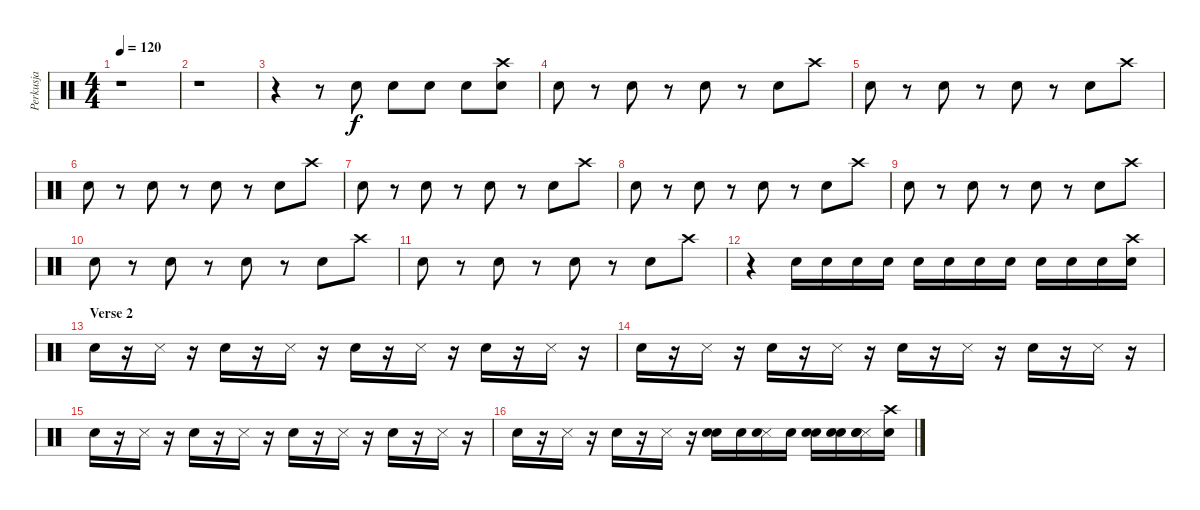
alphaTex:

\track ("Perkusja" "Perkusja") {instrument percussion}
\staff {score}
\articulation defaults
\ts (4 4)
\tempo 120
\clef neutral
\ks c
r.1{dy f} |
r.1 |
r.4 r.8 "Electric Snare (hit)".8 "Electric Snare (hit)".8 "Electric Snare (hit)".8 "Electric Snare (hit)".8 ("Electric Snare (hit)" "Crash high (hit)").8 |
"Electric Snare (hit)".8 r.8 "Electric Snare (hit)".8 r.8 "Electric Snare (hit)".8 r.8 "Electric Snare (hit)".8 "Crash high (hit)".8 |
"Electric Snare (hit)".8 r.8 "Electric Snare (hit)".8 r.8 "Electric Snare (hit)".8 r.8 "Electric Snare (hit)".8 "Crash high (hit)".8 |
"Electric Snare (hit)".8 r.8 "Electric Snare (hit)".8 r.8 "Electric Snare (hit)".8 r.8 "Electric Snare (hit)".8 "Crash high (hit)".8 |
"Electric Snare (hit)".8 r.8 "Electric Snare (hit)".8 r.8 "Electric Snare (hit)".8 r.8 "Electric Snare (hit)".8 "Crash high (hit)".8 |
"Electric Snare (hit)".8 r.8 "Electric Snare (hit)".8 r.8 "Electric Snare (hit)".8 r.8 "Electric Snare (hit)".8 "Crash high (hit)".8 |
"Electric Snare (hit)".8 r.8 "Electric Snare (hit)".8 r.8 "Electric Snare (hit)".8 r.8 "Electric Snare (hit)".8 "Crash high (hit)".8 |
"Electric Snare (hit)".8 r.8 "Electric Snare (hit)".8 r.8 "Electric Snare (hit)".8 r.8 "Electric Snare (hit)".8 "Crash high (hit)".8 |
"Electric Snare (hit)".8 r.8 "Electric Snare (hit)".8 r.8 "Electric Snare (hit)".8 r.8 "Electric Snare (hit)".8 "Crash high (hit)".8 |
r.4 "Electric Snare (hit)".16 "Electric Snare (hit)".16 "Electric Snare (hit)".16 "Electric Snare (hit)".16 "Electric Snare (hit)".16 "Electric Snare (hit)".16 "Electric Snare (hit)".16 "Electric Snare (hit)".16 "Electric Snare (hit)".16 "Electric Snare (hit)".16 "Electric Snare (hit)".16 ("Electric Snare (hit)" "Crash high (hit)").16 |
\section ("" "Verse 2")
"Snare (hit) 2".16 r.16 "Snare (side stick) 3".16 r.16 "Snare (hit) 2".16 r.16 "Snare (side stick) 3".16 r.16 "Snare (hit) 2".16 r.16 "Snare (side stick) 3".16 r.16 "Snare (hit) 2".16 r.16 "Snare (side stick) 3".16 r.16 |
"Snare (hit) 2".16 r.16 "Snare (side stick) 3".16 r.16 "Snare (hit) 2".16 r.16 "Snare (side stick) 3".16 r.16 "Snare (hit) 2".16 r.16 "Snare (side stick) 3".16 r.16 "Snare (hit) 2".16 r.16 "Snare (side stick) 3".16 r.16 |
"Snare (hit) 2".16 r.16 "Snare (side stick) 3".16 r.16 "Snare (hit) 2".16 r.16 "Snare (side stick) 3".16 r.16 "Snare (hit) 2".16 r.16 "Snare (side stick) 3".16 r.16 "Snare (hit) 2".16 r.16 "Snare (side stick) 3".16 r.16 |
"Snare (hit) 2".16 r.16 "Snare (side stick) 3".16 r.16 "Snare (hit) 2".16 r.16 "Snare (side stick) 3".16 r.16 ("Snare (hit) 2" "Snare (hit) 2").16 "Snare (hit) 2".16 ("Snare (side stick) 3" "Snare (hit) 2").16 "Snare (hit) 2".16 ("Snare (hit) 2" "Snare (hit) 2").16 ("Snare (hit) 2" "Electric Snare (hit)").16 ("Snare (side stick) 3" "Snare (hit) 2" "Electric Snare (hit)").16 ("Electric Snare (hit)" "Crash high (hit)").16
